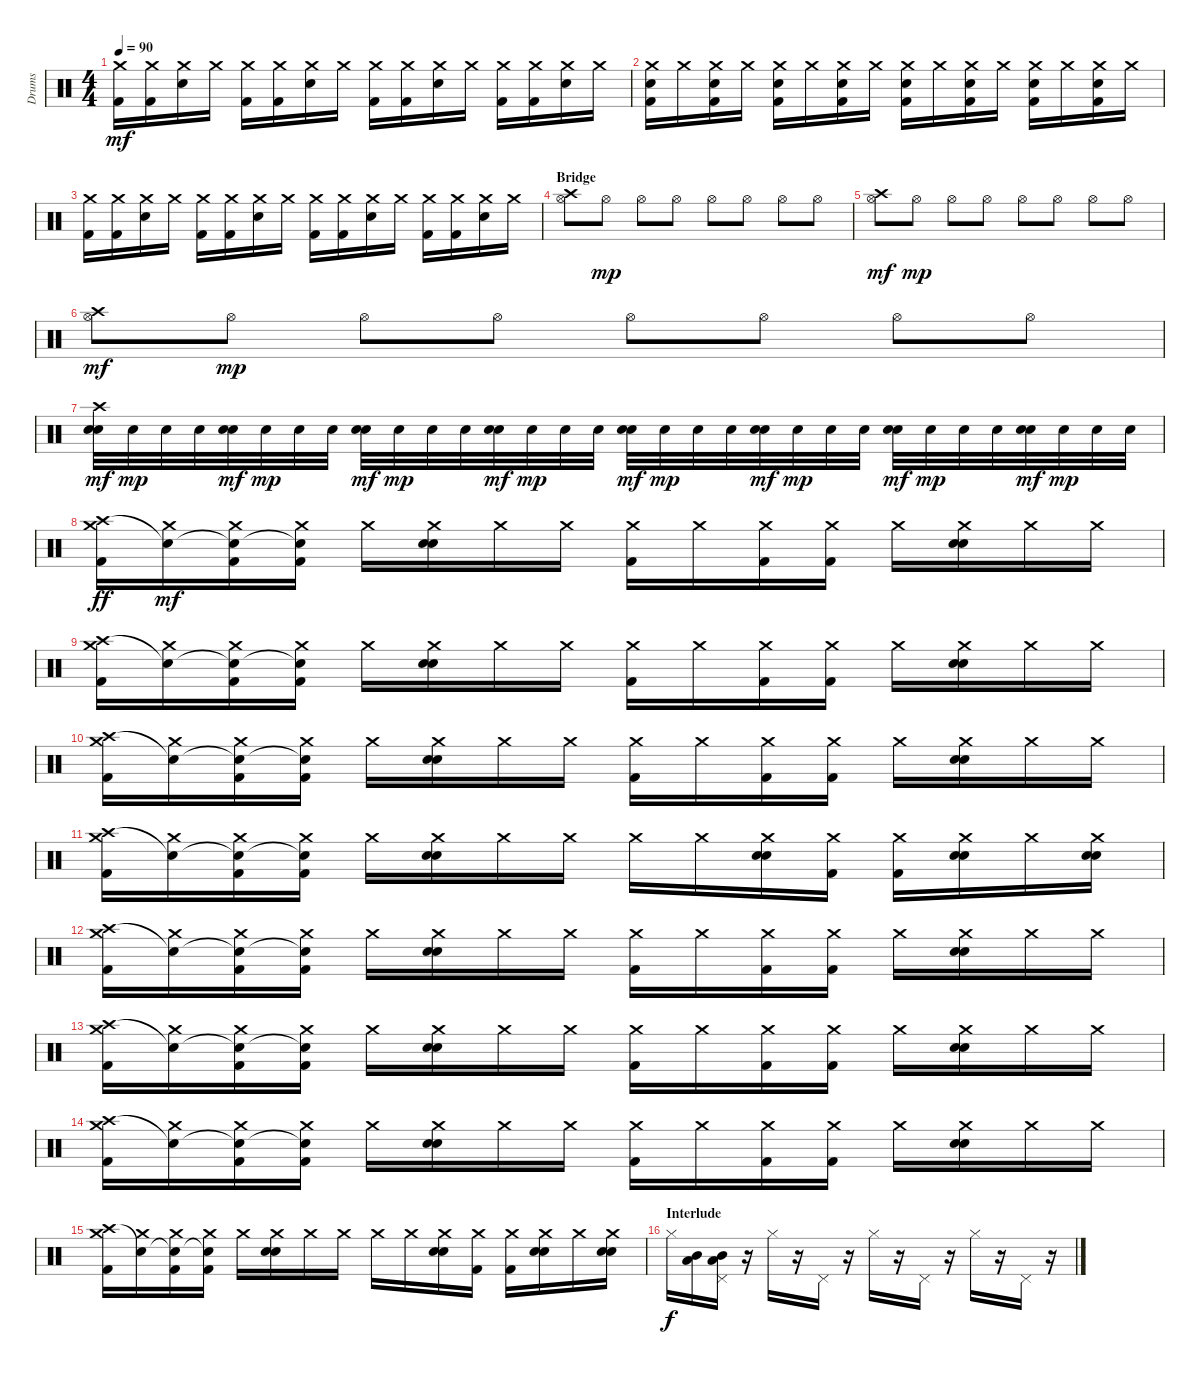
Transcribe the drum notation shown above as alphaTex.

\track ("Drums" "Drums") {instrument percussion}
\staff {score}
\articulation defaults
\ts (4 4)
\tempo 90
\clef neutral
\ks c
("Crash medium (hit)" "Kick (hit) 2").16{dy mf} ("Crash medium (hit)" "Kick (hit) 2").16 ("Crash medium (hit)" "Snare (hit) 2").16 "Crash medium (hit)".16 ("Crash medium (hit)" "Kick (hit) 2").16 ("Crash medium (hit)" "Kick (hit) 2").16 ("Crash medium (hit)" "Snare (hit) 2").16 "Crash medium (hit)".16 ("Crash medium (hit)" "Kick (hit) 2").16 ("Crash medium (hit)" "Kick (hit) 2").16 ("Crash medium (hit)" "Snare (hit) 2").16 "Crash medium (hit)".16 ("Crash medium (hit)" "Kick (hit) 2").16 ("Crash medium (hit)" "Kick (hit) 2").16 ("Crash medium (hit)" "Snare (hit) 2").16 "Crash medium (hit)".16 |
("Crash medium (hit)" "Snare (hit) 2" "Kick (hit) 2").16 "Crash medium (hit)".16 ("Crash medium (hit)" "Snare (hit) 2" "Kick (hit) 2").16 "Crash medium (hit)".16 ("Crash medium (hit)" "Snare (hit) 2" "Kick (hit) 2").16 "Crash medium (hit)".16 ("Crash medium (hit)" "Snare (hit) 2" "Kick (hit) 2").16 "Crash medium (hit)".16 ("Crash medium (hit)" "Snare (hit) 2" "Kick (hit) 2").16 "Crash medium (hit)".16 ("Crash medium (hit)" "Snare (hit) 2" "Kick (hit) 2").16 "Crash medium (hit)".16 ("Crash medium (hit)" "Snare (hit) 2" "Kick (hit) 2").16 "Crash medium (hit)".16 ("Crash medium (hit)" "Snare (hit) 2" "Kick (hit) 2").16 "Crash medium (hit)".16 |
("Crash medium (hit)" "Kick (hit) 2").16 ("Crash medium (hit)" "Kick (hit) 2").16 ("Crash medium (hit)" "Snare (hit) 2").16 "Crash medium (hit)".16 ("Crash medium (hit)" "Kick (hit) 2").16 ("Crash medium (hit)" "Kick (hit) 2").16 ("Crash medium (hit)" "Snare (hit) 2").16 "Crash medium (hit)".16 ("Crash medium (hit)" "Kick (hit) 2").16 ("Crash medium (hit)" "Kick (hit) 2").16 ("Crash medium (hit)" "Snare (hit) 2").16 "Crash medium (hit)".16 ("Crash medium (hit)" "Kick (hit) 2").16 ("Crash medium (hit)" "Kick (hit) 2").16 ("Crash medium (hit)" "Snare (hit) 2").16 "Crash medium (hit)".16 |
\section ("" "Bridge")
("Crash high (hit)" "Hi-Hat (open)").8 "Hi-Hat (open)".8{dy mp} "Hi-Hat (open)".8 "Hi-Hat (open)".8 "Hi-Hat (open)".8 "Hi-Hat (open)".8 "Hi-Hat (open)".8 "Hi-Hat (open)".8 |
("Crash high (hit)" "Hi-Hat (open)").8{dy mf} "Hi-Hat (open)".8{dy mp} "Hi-Hat (open)".8 "Hi-Hat (open)".8 "Hi-Hat (open)".8 "Hi-Hat (open)".8 "Hi-Hat (open)".8 "Hi-Hat (open)".8 |
("Crash high (hit)" "Hi-Hat (open)").8{dy mf} "Hi-Hat (open)".8{dy mp} "Hi-Hat (open)".8 "Hi-Hat (open)".8 "Hi-Hat (open)".8 "Hi-Hat (open)".8 "Hi-Hat (open)".8 "Hi-Hat (open)".8 |
("Crash high (hit)" "Snare (hit) 2" "Snare (hit) 2").32{dy mf} "Snare (hit) 2".32{dy mp} "Snare (hit) 2".32 "Snare (hit) 2".32 ("Snare (hit) 2" "Snare (hit) 2").32{dy mf} "Snare (hit) 2".32{dy mp} "Snare (hit) 2".32 "Snare (hit) 2".32 ("Snare (hit) 2" "Snare (hit) 2").32{dy mf} "Snare (hit) 2".32{dy mp} "Snare (hit) 2".32 "Snare (hit) 2".32 ("Snare (hit) 2" "Snare (hit) 2").32{dy mf} "Snare (hit) 2".32{dy mp} "Snare (hit) 2".32 "Snare (hit) 2".32 ("Snare (hit) 2" "Snare (hit) 2").32{dy mf} "Snare (hit) 2".32{dy mp} "Snare (hit) 2".32 "Snare (hit) 2".32 ("Snare (hit) 2" "Snare (hit) 2").32{dy mf} "Snare (hit) 2".32{dy mp} "Snare (hit) 2".32 "Snare (hit) 2".32 ("Snare (hit) 2" "Snare (hit) 2").32{dy mf} "Snare (hit) 2".32{dy mp} "Snare (hit) 2".32 "Snare (hit) 2".32 ("Snare (hit) 2" "Snare (hit) 2").32{dy mf} "Snare (hit) 2".32{dy mp} "Snare (hit) 2".32 "Snare (hit) 2".32 |
("Crash high (hit)" "Crash medium (hit)" "Kick (hit) 2").16{dy ff} ("Snare (hit)"{t} "Crash medium (hit)").16{dy mf} ("Snare (hit)"{t} "Crash medium (hit)" "Kick (hit) 2").16 ("Snare (hit)"{t} "Crash medium (hit)" "Kick (hit) 2").16 "Crash medium (hit)".16 ("Crash medium (hit)" "Electric Snare (hit)" "Snare (hit) 2").16 "Crash medium (hit)".16 "Crash medium (hit)".16 ("Crash medium (hit)" "Kick (hit) 2").16 "Crash medium (hit)".16 ("Crash medium (hit)" "Kick (hit) 2").16 ("Crash medium (hit)" "Kick (hit) 2").16 "Crash medium (hit)".16 ("Crash medium (hit)" "Electric Snare (hit)" "Snare (hit) 2").16 "Crash medium (hit)".16 "Crash medium (hit)".16 |
("Crash high (hit)" "Crash medium (hit)" "Kick (hit) 2").16 ("Snare (hit)"{t} "Crash medium (hit)").16 ("Snare (hit)"{t} "Crash medium (hit)" "Kick (hit) 2").16 ("Snare (hit)"{t} "Crash medium (hit)" "Kick (hit) 2").16 "Crash medium (hit)".16 ("Crash medium (hit)" "Electric Snare (hit)" "Snare (hit) 2").16 "Crash medium (hit)".16 "Crash medium (hit)".16 ("Crash medium (hit)" "Kick (hit) 2").16 "Crash medium (hit)".16 ("Crash medium (hit)" "Kick (hit) 2").16 ("Crash medium (hit)" "Kick (hit) 2").16 "Crash medium (hit)".16 ("Crash medium (hit)" "Electric Snare (hit)" "Snare (hit) 2").16 "Crash medium (hit)".16 "Crash medium (hit)".16 |
("Crash high (hit)" "Crash medium (hit)" "Kick (hit) 2").16 ("Snare (hit)"{t} "Crash medium (hit)").16 ("Snare (hit)"{t} "Crash medium (hit)" "Kick (hit) 2").16 ("Snare (hit)"{t} "Crash medium (hit)" "Kick (hit) 2").16 "Crash medium (hit)".16 ("Crash medium (hit)" "Electric Snare (hit)" "Snare (hit) 2").16 "Crash medium (hit)".16 "Crash medium (hit)".16 ("Crash medium (hit)" "Kick (hit) 2").16 "Crash medium (hit)".16 ("Crash medium (hit)" "Kick (hit) 2").16 ("Crash medium (hit)" "Kick (hit) 2").16 "Crash medium (hit)".16 ("Crash medium (hit)" "Electric Snare (hit)" "Snare (hit) 2").16 "Crash medium (hit)".16 "Crash medium (hit)".16 |
("Crash high (hit)" "Crash medium (hit)" "Kick (hit) 2").16 ("Snare (hit)"{t} "Crash medium (hit)").16 ("Snare (hit)"{t} "Crash medium (hit)" "Kick (hit) 2").16 ("Snare (hit)"{t} "Crash medium (hit)" "Kick (hit) 2").16 "Crash medium (hit)".16 ("Crash medium (hit)" "Electric Snare (hit)" "Snare (hit) 2").16 "Crash medium (hit)".16 "Crash medium (hit)".16 "Crash medium (hit)".16 "Crash medium (hit)".16 ("Crash medium (hit)" "Electric Snare (hit)" "Snare (hit) 2").16 ("Crash medium (hit)" "Kick (hit) 2").16 ("Crash medium (hit)" "Kick (hit) 2").16 ("Crash medium (hit)" "Electric Snare (hit)" "Snare (hit) 2").16 "Crash medium (hit)".16 ("Crash medium (hit)" "Electric Snare (hit)" "Snare (hit) 2").16 |
("Crash high (hit)" "Crash medium (hit)" "Kick (hit) 2").16 ("Snare (hit)"{t} "Crash medium (hit)").16 ("Snare (hit)"{t} "Crash medium (hit)" "Kick (hit) 2").16 ("Snare (hit)"{t} "Crash medium (hit)" "Kick (hit) 2").16 "Crash medium (hit)".16 ("Crash medium (hit)" "Electric Snare (hit)" "Snare (hit) 2").16 "Crash medium (hit)".16 "Crash medium (hit)".16 ("Crash medium (hit)" "Kick (hit) 2").16 "Crash medium (hit)".16 ("Crash medium (hit)" "Kick (hit) 2").16 ("Crash medium (hit)" "Kick (hit) 2").16 "Crash medium (hit)".16 ("Crash medium (hit)" "Electric Snare (hit)" "Snare (hit) 2").16 "Crash medium (hit)".16 "Crash medium (hit)".16 |
("Crash high (hit)" "Crash medium (hit)" "Kick (hit) 2").16 ("Snare (hit)"{t} "Crash medium (hit)").16 ("Snare (hit)"{t} "Crash medium (hit)" "Kick (hit) 2").16 ("Snare (hit)"{t} "Crash medium (hit)" "Kick (hit) 2").16 "Crash medium (hit)".16 ("Crash medium (hit)" "Electric Snare (hit)" "Snare (hit) 2").16 "Crash medium (hit)".16 "Crash medium (hit)".16 ("Crash medium (hit)" "Kick (hit) 2").16 "Crash medium (hit)".16 ("Crash medium (hit)" "Kick (hit) 2").16 ("Crash medium (hit)" "Kick (hit) 2").16 "Crash medium (hit)".16 ("Crash medium (hit)" "Electric Snare (hit)" "Snare (hit) 2").16 "Crash medium (hit)".16 "Crash medium (hit)".16 |
("Crash high (hit)" "Crash medium (hit)" "Kick (hit) 2").16 ("Snare (hit)"{t} "Crash medium (hit)").16 ("Snare (hit)"{t} "Crash medium (hit)" "Kick (hit) 2").16 ("Snare (hit)"{t} "Crash medium (hit)" "Kick (hit) 2").16 "Crash medium (hit)".16 ("Crash medium (hit)" "Electric Snare (hit)" "Snare (hit) 2").16 "Crash medium (hit)".16 "Crash medium (hit)".16 ("Crash medium (hit)" "Kick (hit) 2").16 "Crash medium (hit)".16 ("Crash medium (hit)" "Kick (hit) 2").16 ("Crash medium (hit)" "Kick (hit) 2").16 "Crash medium (hit)".16 ("Crash medium (hit)" "Electric Snare (hit)" "Snare (hit) 2").16 "Crash medium (hit)".16 "Crash medium (hit)".16 |
("Crash high (hit)" "Crash medium (hit)" "Kick (hit) 2").16 ("Snare (hit)"{t} "Crash medium (hit)").16 ("Snare (hit)"{t} "Crash medium (hit)" "Kick (hit) 2").16 ("Snare (hit)"{t} "Crash medium (hit)" "Kick (hit) 2").16 "Crash medium (hit)".16 ("Crash medium (hit)" "Electric Snare (hit)" "Snare (hit) 2").16 "Crash medium (hit)".16 "Crash medium (hit)".16 "Crash medium (hit)".16 "Crash medium (hit)".16 ("Crash medium (hit)" "Electric Snare (hit)" "Snare (hit) 2").16 ("Crash medium (hit)" "Kick (hit) 2").16 ("Crash medium (hit)" "Kick (hit) 2").16 ("Crash medium (hit)" "Electric Snare (hit)" "Snare (hit) 2").16 "Crash medium (hit)".16 ("Crash medium (hit)" "Electric Snare (hit)" "Snare (hit) 2").16 |
\section ("" "Interlude")
"Hi-Hat (closed)".16{dy f} ("Mid Tom (hit)" "Low Tom (hit)").16 ("Pedal Hi-Hat (hit)" "Mid Tom (hit)" "Low Tom (hit)").16 r.16 "Hi-Hat (closed)".16 r.16 "Pedal Hi-Hat (hit)".16 r.16 "Hi-Hat (closed)".16 r.16 "Pedal Hi-Hat (hit)".16 r.16 "Hi-Hat (closed)".16 r.16 "Pedal Hi-Hat (hit)".16 r.16
